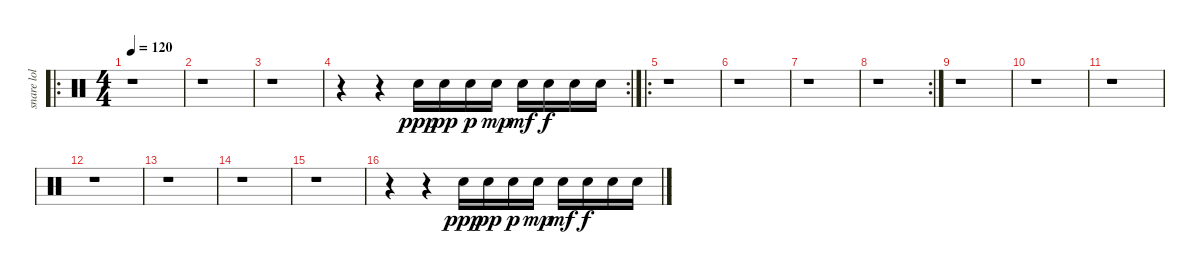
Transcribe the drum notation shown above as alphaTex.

\track ("snare lol lazy" "snare lol ") {instrument percussion}
\staff {score}
\articulation defaults
\ro
\ts (4 4)
\tempo 120
\clef neutral
\ks c
r.1{dy f} |
r.1 |
r.1 |
\rc 2
r.4 r.4 "Snare (hit) 2".16{dy ppp} "Snare (hit) 2".16{dy pp} "Snare (hit) 2".16{dy p} "Snare (hit) 2".16{dy mp} "Snare (hit) 2".16{dy mf} "Snare (hit) 2".16{dy f} "Snare (hit) 2".16 "Snare (hit) 2".16 |
\ro
r.1 |
r.1 |
r.1 |
\rc 2
r.1 |
r.1 |
r.1 |
r.1 |
r.1 |
r.1 |
r.1 |
r.1 |
r.4 r.4 "Snare (hit) 2".16{dy ppp} "Snare (hit) 2".16{dy pp} "Snare (hit) 2".16{dy p} "Snare (hit) 2".16{dy mp} "Snare (hit) 2".16{dy mf} "Snare (hit) 2".16{dy f} "Snare (hit) 2".16 "Snare (hit) 2".16
